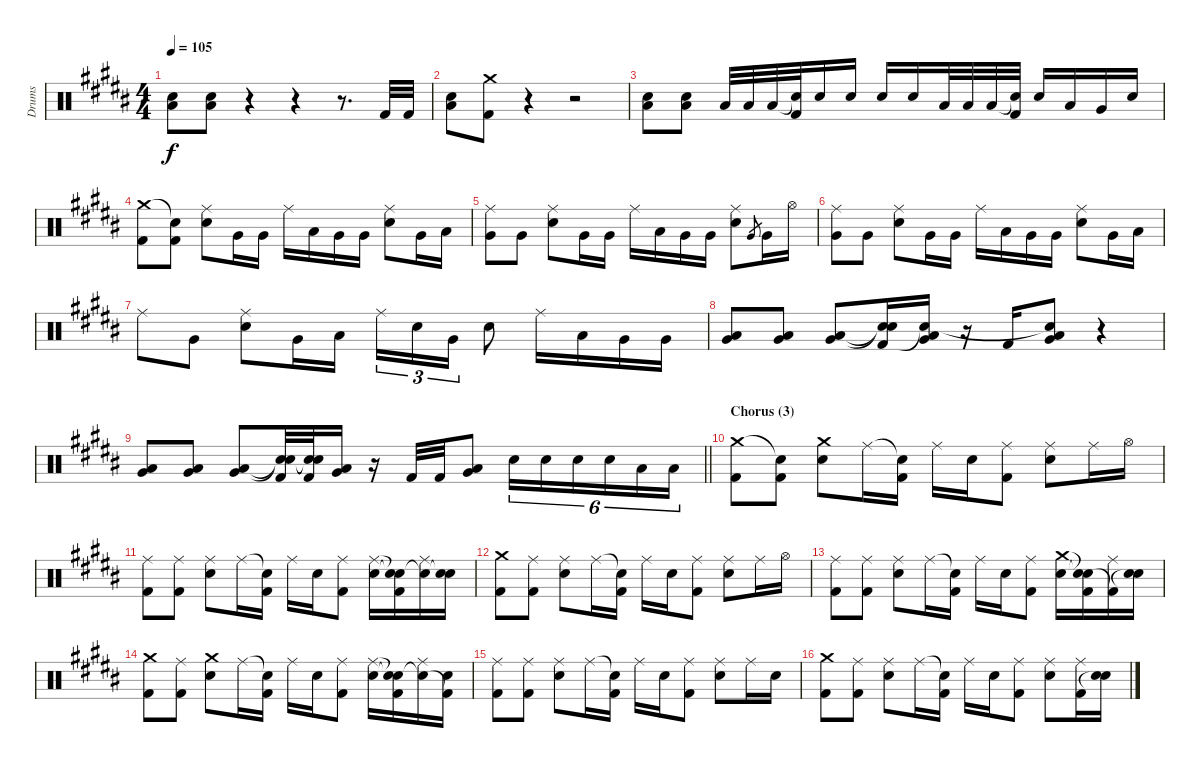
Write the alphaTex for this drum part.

\track ("Drums" "Drums") {instrument percussion}
\staff {score}
\articulation defaults
\ts (4 4)
\tempo 105
\clef neutral
\ks g#minor
("Electric Snare (hit)" "Low Floor Tom (hit)").8{dy f} ("Electric Snare (hit)" "Low Floor Tom (hit)").8 r.4 r.4 r.8{d} "Kick (hit) 2".32 "Kick (hit) 2".32 |
("Electric Snare (hit)" "Low Floor Tom (hit)").8 ("Crash medium (hit)" "Kick (hit) 2").8 r.4 r.2 |
("Electric Snare (hit)" "Low Floor Tom (hit)").8 ("Electric Snare (hit)" "Low Floor Tom (hit)").8 "Low Tom (hit)".32 "Low Tom (hit)".32 "Low Tom (hit)".32 ("Snare (hit)"{t} "Kick (hit) 2").32 "Electric Snare (hit)".16 "Electric Snare (hit)".16 "Electric Snare (hit)".16 "Electric Snare (hit)".16 "Low Tom (hit)".32 "Low Tom (hit)".32 "Low Tom (hit)".32 ("Snare (hit)"{t} "Kick (hit) 2").32 "Electric Snare (hit)".16 "Low Tom (hit)".16 "Very Low Tom (hit)".16 "Electric Snare (hit)".16 |
("Crash medium (hit)" "Kick (hit) 2").8 ("Snare (hit)"{t} "Kick (hit) 2").8 ("Ride (middle)" "Electric Snare (hit)").8 "Very Low Tom (hit)".16 "Very Low Tom (hit)".16 "Ride (middle)".16 "Low Tom (hit)".16 "Very Low Tom (hit)".16 "Very Low Tom (hit)".16 ("Ride (middle)" "Electric Snare (hit)").8 "Very Low Tom (hit)".16 "Low Tom (hit)".16 |
("Ride (middle)" "Very Low Tom (hit)").8 "Very Low Tom (hit)".8 ("Ride (middle)" "Electric Snare (hit)").8 "Very Low Tom (hit)".16 "Very Low Tom (hit)".16 "Ride (middle)".16 "Low Tom (hit)".16 "Very Low Tom (hit)".16 "Very Low Tom (hit)".16 ("Ride (middle)" "Electric Snare (hit)").8 "Very Low Tom (hit)".8{gr} "Very Low Tom (hit)".16 "Hi-Hat (open)".16 |
("Ride (middle)" "Very Low Tom (hit)").8 "Very Low Tom (hit)".8 ("Ride (middle)" "Electric Snare (hit)").8 "Very Low Tom (hit)".16 "Very Low Tom (hit)".16 "Ride (middle)".16 "Low Tom (hit)".16 "Very Low Tom (hit)".16 "Very Low Tom (hit)".16 ("Ride (middle)" "Electric Snare (hit)").8 "Very Low Tom (hit)".16 "Low Tom (hit)".16 |
"Ride (middle)".8 "Very Low Tom (hit)".8 ("Ride (middle)" "Electric Snare (hit)").8 "Very Low Tom (hit)".16 "Low Tom (hit)".16 "Ride (middle)".16{tu (3 2)} "Electric Snare (hit)".16{tu (3 2)} "Very Low Tom (hit)".16{tu (3 2)} "Electric Snare (hit)".8 "Ride (middle)".16 "Low Tom (hit)".16 "Very Low Tom (hit)".16 "Very Low Tom (hit)".16 |
("Low Tom (hit)" "Very Low Tom (hit)").8 ("Low Tom (hit)" "Very Low Tom (hit)").8 ("Low Tom (hit)" "Very Low Tom (hit)").8 ("Snare (hit)"{t} "Snare (hit)"{t} "Kick (hit) 2").16 ("Very Low Tom (hit)" "Low Floor Tom (hit)" "Snare (hit)"{t}).16 r.16 "Kick (hit) 2".16 ("Very Low Tom (hit)" "Low Floor Tom (hit)" "Snare (hit)"{t}).8 r.4 |
\barLineRight lightlight
("Low Tom (hit)" "Very Low Tom (hit)").8 ("Low Tom (hit)" "Very Low Tom (hit)").8 ("Low Tom (hit)" "Very Low Tom (hit)").8 ("Snare (hit)"{t} "Snare (hit)"{t} "Kick (hit) 2").32 ("Snare (hit)"{t} "Snare (hit)"{t} "Kick (hit) 2").32 ("Low Tom (hit)" "Very Low Tom (hit)").16 r.16 "Kick (hit) 2".32 "Kick (hit) 2".32 ("Low Tom (hit)" "Very Low Tom (hit)").8 "Electric Snare (hit)".16{tu (6 4)} "Electric Snare (hit)".16{tu (6 4)} "Electric Snare (hit)".16{tu (6 4)} "Electric Snare (hit)".16{tu (6 4)} "Low Tom (hit)".16{tu (6 4)} "Low Tom (hit)".16{tu (6 4)} |
\section ("" "Chorus (3)")
("Crash medium (hit)" "Kick (hit) 2").8 ("Snare (hit)"{t} "Kick (hit) 2").8 ("Crash medium (hit)" "Electric Snare (hit)").8 "Ride (middle)".16 ("Snare (hit)"{t} "Kick (hit) 2").16 "Ride (middle)".16 "Electric Snare (hit)".16 ("Ride (middle)" "Kick (hit) 2").8 ("Ride (middle)" "Electric Snare (hit)").8 "Ride (middle)".16 "Hi-Hat (open)".16 |
("Ride (middle)" "Kick (hit) 2").8 ("Ride (middle)" "Kick (hit) 2").8 ("Ride (middle)" "Electric Snare (hit)").8 "Ride (middle)".16 ("Snare (hit)"{t} "Kick (hit) 2").16 "Ride (middle)".16 "Electric Snare (hit)".16 ("Ride (middle)" "Kick (hit) 2").8 ("Ride (middle)" "Electric Snare (hit)").16 ("Snare (hit)"{t} "Snare (hit)"{t} "Kick (hit) 2").16 ("Ride (middle)" "Snare (hit)"{t}).16 ("Electric Snare (hit)" "Snare (hit)"{t}).16 |
("Crash medium (hit)" "Kick (hit) 2").8 ("Ride (middle)" "Kick (hit) 2").8 ("Ride (middle)" "Electric Snare (hit)").8 "Ride (middle)".16 ("Snare (hit)"{t} "Kick (hit) 2").16 "Ride (middle)".16 "Electric Snare (hit)".16 ("Ride (middle)" "Kick (hit) 2").8 ("Ride (middle)" "Electric Snare (hit)").8 "Ride (middle)".16 "Hi-Hat (open)".16 |
("Ride (middle)" "Kick (hit) 2").8 ("Ride (middle)" "Kick (hit) 2").8 ("Ride (middle)" "Electric Snare (hit)").8 "Ride (middle)".16 ("Snare (hit)"{t} "Kick (hit) 2").16 "Ride (middle)".16 "Electric Snare (hit)".16 ("Ride (middle)" "Kick (hit) 2").8 ("Crash medium (hit)" "Electric Snare (hit)").16 ("Snare (hit)"{t} "Electric Snare (hit)"{t} "Kick (hit) 2").16 ("Ride (middle)" "Kick (hit) 2"{t}).16 ("Electric Snare (hit)" "Snare (hit)"{t}).16 |
("Crash medium (hit)" "Kick (hit) 2").8 ("Ride (middle)" "Kick (hit) 2").8 ("Crash medium (hit)" "Electric Snare (hit)").8 "Ride (middle)".16 ("Snare (hit)"{t} "Kick (hit) 2").16 "Ride (middle)".16 "Electric Snare (hit)".16 ("Ride (middle)" "Kick (hit) 2").8 ("Ride (middle)" "Electric Snare (hit)").16 ("Snare (hit)"{t} "Snare (hit)"{t} "Kick (hit) 2").16 ("Ride (middle)" "Snare (hit)"{t}).16 ("Electric Snare (hit)" "Kick (hit) 2"{t}).16 |
("Ride (middle)" "Kick (hit) 2").8 ("Ride (middle)" "Kick (hit) 2").8 ("Ride (middle)" "Electric Snare (hit)").8 "Ride (middle)".16 ("Snare (hit)"{t} "Kick (hit) 2").16 "Ride (middle)".16 "Electric Snare (hit)".16 ("Ride (middle)" "Kick (hit) 2").8 ("Ride (middle)" "Electric Snare (hit)").8 "Ride (middle)".16 "Electric Snare (hit)".16 |
("Crash medium (hit)" "Kick (hit) 2").8 ("Ride (middle)" "Kick (hit) 2").8 ("Ride (middle)" "Electric Snare (hit)").8 "Ride (middle)".16 ("Snare (hit)"{t} "Kick (hit) 2").16 "Ride (middle)".16 "Electric Snare (hit)".16 ("Ride (middle)" "Kick (hit) 2").8 ("Ride (middle)" "Electric Snare (hit)").8 ("Ride (middle)" "Kick (hit) 2").16 ("Electric Snare (hit)" "Snare (hit)"{t}).16
